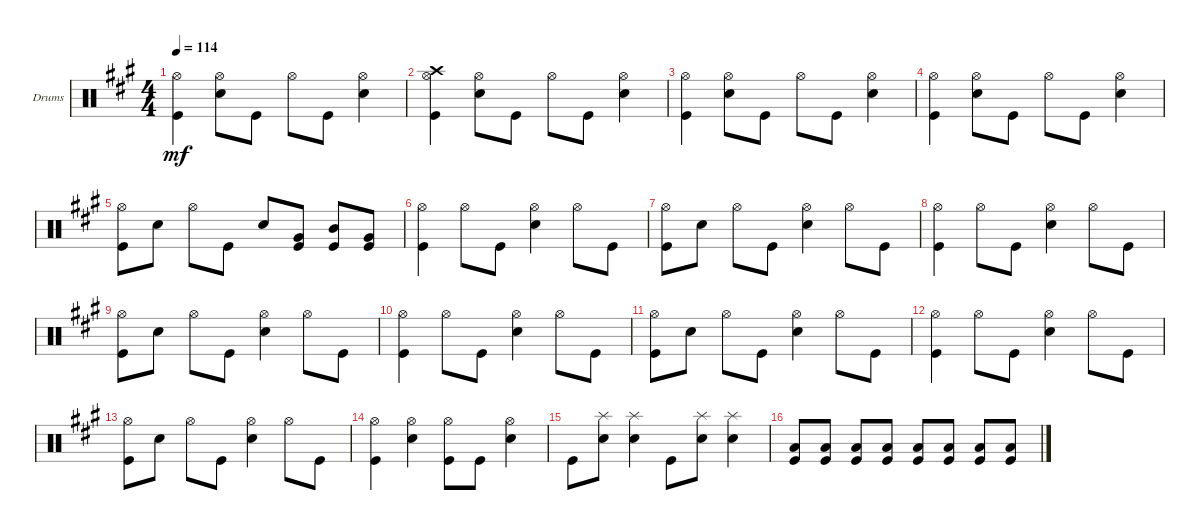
\defaultSystemsLayout 4
\bracketExtendMode groupsimilarinstruments
\firstSystemTrackNameOrientation horizontal
\otherSystemsTrackNameOrientation horizontal
\track ("Drumkit" "Drums") {instrument percussion}
\staff {score}
\articulation defaults
\ts (4 4)
\tempo 114
\clef neutral
\ks f#minor
("Hi-Hat (open)" "Kick (hit)").4{dy mf} ("Hi-Hat (open)" "Snare (hit) 2").8 "Kick (hit)".8 "Hi-Hat (open)".8 "Kick (hit)".8 ("Hi-Hat (open)" "Snare (hit) 2").4 |
("Hi-Hat (open)" "Kick (hit)" "Crash high (hit)").4 ("Hi-Hat (open)" "Snare (hit) 2").8 "Kick (hit)".8 "Hi-Hat (open)".8 "Kick (hit)".8 ("Hi-Hat (open)" "Snare (hit) 2").4 |
("Hi-Hat (open)" "Kick (hit)").4 ("Hi-Hat (open)" "Snare (hit) 2").8 "Kick (hit)".8 "Hi-Hat (open)".8 "Kick (hit)".8 ("Hi-Hat (open)" "Snare (hit) 2").4 |
("Hi-Hat (open)" "Kick (hit)").4 ("Hi-Hat (open)" "Snare (hit) 2").8 "Kick (hit)".8 "Hi-Hat (open)".8 "Kick (hit)".8 ("Hi-Hat (open)" "Snare (hit) 2").4 |
("Hi-Hat (open)" "Kick (hit)").8 "Snare (hit) 2".8 "Hi-Hat (open)".8 "Kick (hit)".8 "Snare (hit) 2".8 ("Kick (hit)" "Very Low Tom (hit)").8 ("Kick (hit)" "Mid Tom (hit)").8 ("Kick (hit)" "Very Low Tom (hit)").8 |
("Kick (hit)" "Hi-Hat (open)").4 "Hi-Hat (open)".8 "Kick (hit)".8 ("Snare (hit) 2" "Hi-Hat (open)").4 "Hi-Hat (open)".8 "Kick (hit)".8 |
("Kick (hit)" "Hi-Hat (open)").8 "Snare (hit) 2".8 "Hi-Hat (open)".8 "Kick (hit)".8 ("Snare (hit) 2" "Hi-Hat (open)").4 "Hi-Hat (open)".8 "Kick (hit)".8 |
("Kick (hit)" "Hi-Hat (open)").4 "Hi-Hat (open)".8 "Kick (hit)".8 ("Snare (hit) 2" "Hi-Hat (open)").4 "Hi-Hat (open)".8 "Kick (hit)".8 |
("Kick (hit)" "Hi-Hat (open)").8 "Snare (hit) 2".8 "Hi-Hat (open)".8 "Kick (hit)".8 ("Snare (hit) 2" "Hi-Hat (open)").4 "Hi-Hat (open)".8 "Kick (hit)".8 |
("Kick (hit)" "Hi-Hat (open)").4 "Hi-Hat (open)".8 "Kick (hit)".8 ("Snare (hit) 2" "Hi-Hat (open)").4 "Hi-Hat (open)".8 "Kick (hit)".8 |
("Kick (hit)" "Hi-Hat (open)").8 "Snare (hit) 2".8 "Hi-Hat (open)".8 "Kick (hit)".8 ("Snare (hit) 2" "Hi-Hat (open)").4 "Hi-Hat (open)".8 "Kick (hit)".8 |
("Kick (hit)" "Hi-Hat (open)").4 "Hi-Hat (open)".8 "Kick (hit)".8 ("Snare (hit) 2" "Hi-Hat (open)").4 "Hi-Hat (open)".8 "Kick (hit)".8 |
("Kick (hit)" "Hi-Hat (open)").8 "Snare (hit) 2".8 "Hi-Hat (open)".8 "Kick (hit)".8 ("Snare (hit) 2" "Hi-Hat (open)").4 "Hi-Hat (open)".8 "Kick (hit)".8 |
("Hi-Hat (open)" "Kick (hit)").4 ("Hi-Hat (open)" "Snare (hit) 2").4 ("Hi-Hat (open)" "Kick (hit)").8 "Kick (hit)".8 ("Hi-Hat (open)" "Snare (hit) 2").4 |
"Kick (hit)".8 ("Snare (hit) 2" "Splash (hit)").8 ("Snare (hit) 2" "Splash (hit)").4 "Kick (hit)".8 ("Snare (hit) 2" "Splash (hit)").8 ("Snare (hit) 2" "Splash (hit)").4 |
("Kick (hit)" "Low Tom (hit)").8 ("Kick (hit)" "Low Tom (hit)").8 ("Kick (hit)" "Low Tom (hit)").8 ("Kick (hit)" "Low Tom (hit)").8 ("Kick (hit)" "Low Tom (hit)").8 ("Kick (hit)" "Low Tom (hit)").8 ("Kick (hit)" "Low Tom (hit)").8 ("Kick (hit)" "Low Tom (hit)").8
